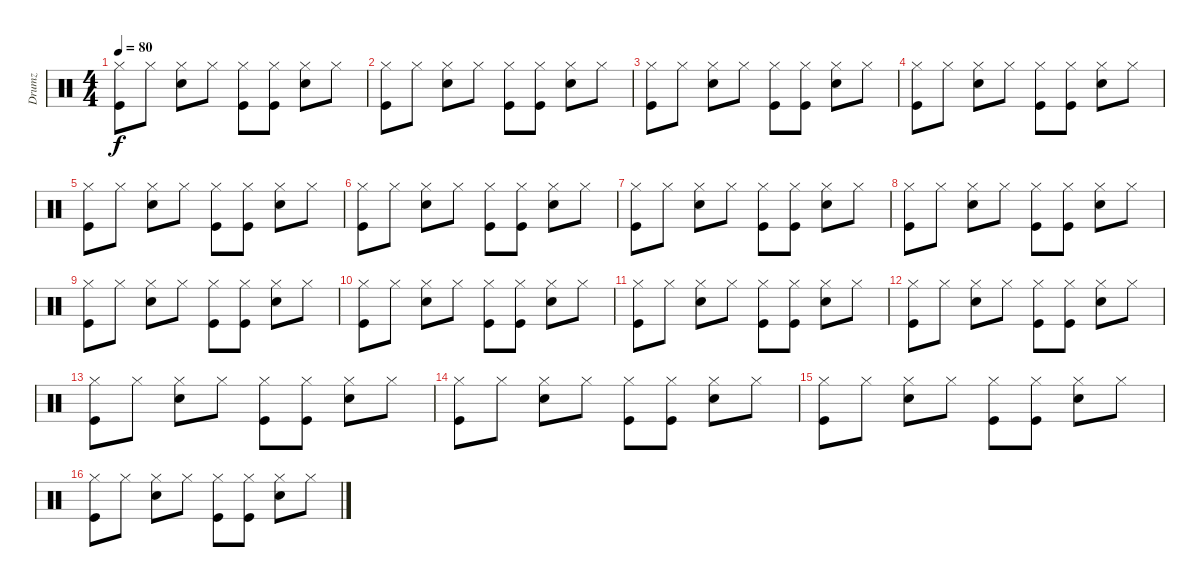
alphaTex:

\track ("Drumz" "Drumz") {instrument percussion}
\staff {score}
\articulation defaults
\ts (4 4)
\tempo 80
\clef neutral
\ks c
("Hi-Hat (closed)" "Kick (hit)").8{dy f} "Hi-Hat (closed)".8 ("Hi-Hat (closed)" "Electric Snare (hit)").8 "Hi-Hat (closed)".8 ("Hi-Hat (closed)" "Kick (hit)").8 ("Hi-Hat (closed)" "Kick (hit)").8 ("Hi-Hat (closed)" "Electric Snare (hit)").8 "Hi-Hat (closed)".8 |
("Hi-Hat (closed)" "Kick (hit)").8 "Hi-Hat (closed)".8 ("Hi-Hat (closed)" "Electric Snare (hit)").8 "Hi-Hat (closed)".8 ("Hi-Hat (closed)" "Kick (hit)").8 ("Hi-Hat (closed)" "Kick (hit)").8 ("Hi-Hat (closed)" "Electric Snare (hit)").8 "Hi-Hat (closed)".8 |
("Hi-Hat (closed)" "Kick (hit)").8 "Hi-Hat (closed)".8 ("Hi-Hat (closed)" "Electric Snare (hit)").8 "Hi-Hat (closed)".8 ("Hi-Hat (closed)" "Kick (hit)").8 ("Hi-Hat (closed)" "Kick (hit)").8 ("Hi-Hat (closed)" "Electric Snare (hit)").8 "Hi-Hat (closed)".8 |
("Hi-Hat (closed)" "Kick (hit)").8 "Hi-Hat (closed)".8 ("Hi-Hat (closed)" "Electric Snare (hit)").8 "Hi-Hat (closed)".8 ("Hi-Hat (closed)" "Kick (hit)").8 ("Hi-Hat (closed)" "Kick (hit)").8 ("Hi-Hat (closed)" "Electric Snare (hit)").8 "Hi-Hat (closed)".8 |
("Hi-Hat (closed)" "Kick (hit)").8 "Hi-Hat (closed)".8 ("Hi-Hat (closed)" "Electric Snare (hit)").8 "Hi-Hat (closed)".8 ("Hi-Hat (closed)" "Kick (hit)").8 ("Hi-Hat (closed)" "Kick (hit)").8 ("Hi-Hat (closed)" "Electric Snare (hit)").8 "Hi-Hat (closed)".8 |
("Hi-Hat (closed)" "Kick (hit)").8 "Hi-Hat (closed)".8 ("Hi-Hat (closed)" "Electric Snare (hit)").8 "Hi-Hat (closed)".8 ("Hi-Hat (closed)" "Kick (hit)").8 ("Hi-Hat (closed)" "Kick (hit)").8 ("Hi-Hat (closed)" "Electric Snare (hit)").8 "Hi-Hat (closed)".8 |
("Hi-Hat (closed)" "Kick (hit)").8 "Hi-Hat (closed)".8 ("Hi-Hat (closed)" "Electric Snare (hit)").8 "Hi-Hat (closed)".8 ("Hi-Hat (closed)" "Kick (hit)").8 ("Hi-Hat (closed)" "Kick (hit)").8 ("Hi-Hat (closed)" "Electric Snare (hit)").8 "Hi-Hat (closed)".8 |
("Hi-Hat (closed)" "Kick (hit)").8 "Hi-Hat (closed)".8 ("Hi-Hat (closed)" "Electric Snare (hit)").8 "Hi-Hat (closed)".8 ("Hi-Hat (closed)" "Kick (hit)").8 ("Hi-Hat (closed)" "Kick (hit)").8 ("Hi-Hat (closed)" "Electric Snare (hit)").8 "Hi-Hat (closed)".8 |
("Hi-Hat (closed)" "Kick (hit)").8 "Hi-Hat (closed)".8 ("Hi-Hat (closed)" "Electric Snare (hit)").8 "Hi-Hat (closed)".8 ("Hi-Hat (closed)" "Kick (hit)").8 ("Hi-Hat (closed)" "Kick (hit)").8 ("Hi-Hat (closed)" "Electric Snare (hit)").8 "Hi-Hat (closed)".8 |
("Hi-Hat (closed)" "Kick (hit)").8 "Hi-Hat (closed)".8 ("Hi-Hat (closed)" "Electric Snare (hit)").8 "Hi-Hat (closed)".8 ("Hi-Hat (closed)" "Kick (hit)").8 ("Hi-Hat (closed)" "Kick (hit)").8 ("Hi-Hat (closed)" "Electric Snare (hit)").8 "Hi-Hat (closed)".8 |
("Hi-Hat (closed)" "Kick (hit)").8 "Hi-Hat (closed)".8 ("Hi-Hat (closed)" "Electric Snare (hit)").8 "Hi-Hat (closed)".8 ("Hi-Hat (closed)" "Kick (hit)").8 ("Hi-Hat (closed)" "Kick (hit)").8 ("Hi-Hat (closed)" "Electric Snare (hit)").8 "Hi-Hat (closed)".8 |
("Hi-Hat (closed)" "Kick (hit)").8 "Hi-Hat (closed)".8 ("Hi-Hat (closed)" "Electric Snare (hit)").8 "Hi-Hat (closed)".8 ("Hi-Hat (closed)" "Kick (hit)").8 ("Hi-Hat (closed)" "Kick (hit)").8 ("Hi-Hat (closed)" "Electric Snare (hit)").8 "Hi-Hat (closed)".8 |
("Hi-Hat (closed)" "Kick (hit)").8 "Hi-Hat (closed)".8 ("Hi-Hat (closed)" "Electric Snare (hit)").8 "Hi-Hat (closed)".8 ("Hi-Hat (closed)" "Kick (hit)").8 ("Hi-Hat (closed)" "Kick (hit)").8 ("Hi-Hat (closed)" "Electric Snare (hit)").8 "Hi-Hat (closed)".8 |
("Hi-Hat (closed)" "Kick (hit)").8 "Hi-Hat (closed)".8 ("Hi-Hat (closed)" "Electric Snare (hit)").8 "Hi-Hat (closed)".8 ("Hi-Hat (closed)" "Kick (hit)").8 ("Hi-Hat (closed)" "Kick (hit)").8 ("Hi-Hat (closed)" "Electric Snare (hit)").8 "Hi-Hat (closed)".8 |
("Hi-Hat (closed)" "Kick (hit)").8 "Hi-Hat (closed)".8 ("Hi-Hat (closed)" "Electric Snare (hit)").8 "Hi-Hat (closed)".8 ("Hi-Hat (closed)" "Kick (hit)").8 ("Hi-Hat (closed)" "Kick (hit)").8 ("Hi-Hat (closed)" "Electric Snare (hit)").8 "Hi-Hat (closed)".8 |
("Hi-Hat (closed)" "Kick (hit)").8 "Hi-Hat (closed)".8 ("Hi-Hat (closed)" "Electric Snare (hit)").8 "Hi-Hat (closed)".8 ("Hi-Hat (closed)" "Kick (hit)").8 ("Hi-Hat (closed)" "Kick (hit)").8 ("Hi-Hat (closed)" "Electric Snare (hit)").8 "Hi-Hat (closed)".8
